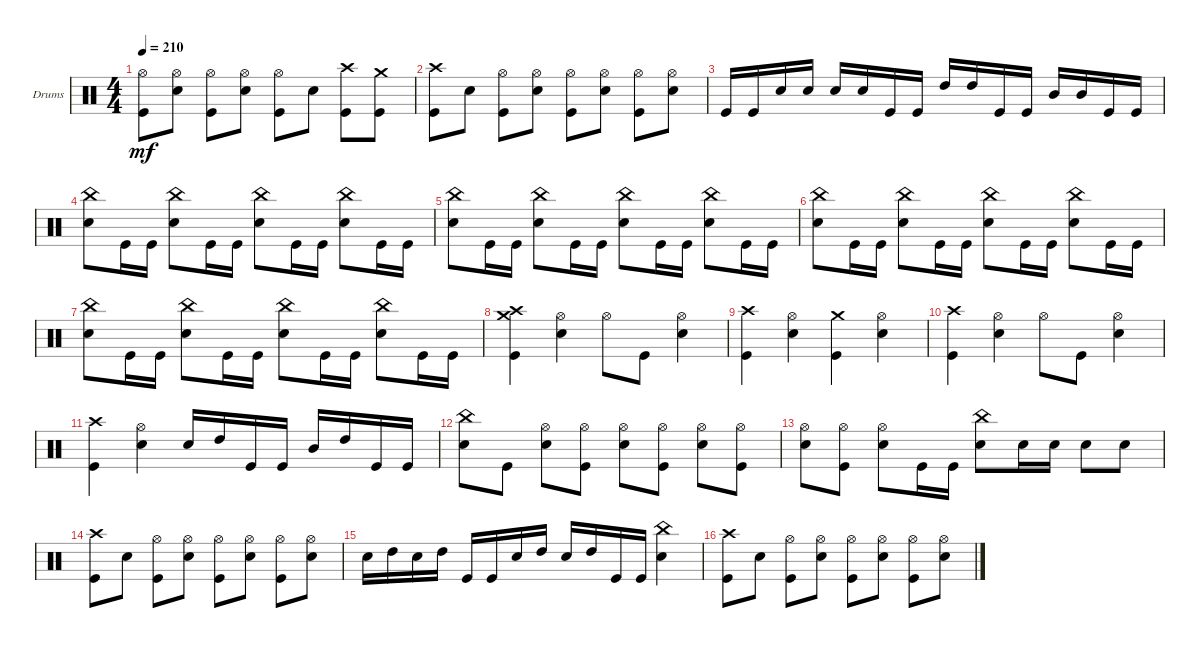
\bracketExtendMode groupsimilarinstruments
\firstSystemTrackNameOrientation horizontal
\otherSystemsTrackNameOrientation horizontal
\track ("Drumkit" "Drums") {instrument percussion}
\staff {score}
\articulation defaults
\ts (4 4)
\tempo 210
\clef neutral
\ks c
("Kick (hit)" "Hi-Hat (open)").8{dy mf} ("Snare (hit) 2" "Hi-Hat (open)").8 ("Hi-Hat (open)" "Kick (hit)").8 ("Snare (hit) 2" "Hi-Hat (open)").8 ("Kick (hit)" "Hi-Hat (open)").8 "Snare (hit) 2".8 ("Kick (hit)" "Crash high (hit)").8 ("Kick (hit)" "Crash medium (hit)").8 |
("Kick (hit)" "Crash high (hit)").8 "Snare (hit) 2".8 ("Hi-Hat (open)" "Kick (hit)").8 ("Hi-Hat (open)" "Snare (hit) 2").8 ("Hi-Hat (open)" "Kick (hit)").8 ("Hi-Hat (open)" "Snare (hit) 2").8 ("Hi-Hat (open)" "Kick (hit)").8 ("Hi-Hat (open)" "Snare (hit) 2").8 |
"Kick (hit)".16 "Kick (hit)".16 "Snare (hit) 2".16 "Snare (hit) 2".16 "Snare (hit) 2".16 "Snare (hit) 2".16 "Kick (hit)".16 "Kick (hit)".16 "High Tom (hit)".16 "High Tom (hit)".16 "Kick (hit)".16 "Kick (hit)".16 "Mid Tom (hit)".16 "Mid Tom (hit)".16 "Kick (hit)".16 "Kick (hit)".16 |
("Snare (hit) 2" "China (hit)").8 "Kick (hit)".16 "Kick (hit)".16 ("Snare (hit) 2" "China (hit)").8 "Kick (hit)".16 "Kick (hit)".16 ("Snare (hit) 2" "China (hit)").8 "Kick (hit)".16 "Kick (hit)".16 ("Snare (hit) 2" "China (hit)").8 "Kick (hit)".16 "Kick (hit)".16 |
("Snare (hit) 2" "China (hit)").8 "Kick (hit)".16 "Kick (hit)".16 ("Snare (hit) 2" "China (hit)").8 "Kick (hit)".16 "Kick (hit)".16 ("Snare (hit) 2" "China (hit)").8 "Kick (hit)".16 "Kick (hit)".16 ("Snare (hit) 2" "China (hit)").8 "Kick (hit)".16 "Kick (hit)".16 |
("Snare (hit) 2" "China (hit)").8 "Kick (hit)".16 "Kick (hit)".16 ("Snare (hit) 2" "China (hit)").8 "Kick (hit)".16 "Kick (hit)".16 ("Snare (hit) 2" "China (hit)").8 "Kick (hit)".16 "Kick (hit)".16 ("Snare (hit) 2" "China (hit)").8 "Kick (hit)".16 "Kick (hit)".16 |
("Snare (hit) 2" "China (hit)").8 "Kick (hit)".16 "Kick (hit)".16 ("Snare (hit) 2" "China (hit)").8 "Kick (hit)".16 "Kick (hit)".16 ("Snare (hit) 2" "China (hit)").8 "Kick (hit)".16 "Kick (hit)".16 ("Snare (hit) 2" "China (hit)").8 "Kick (hit)".16 "Kick (hit)".16 |
("Kick (hit)" "Crash medium (hit)" "Crash high (hit)").4 ("Snare (hit) 2" "Hi-Hat (open)").4 "Hi-Hat (open)".8 "Kick (hit)".8 ("Hi-Hat (open)" "Snare (hit) 2").4 |
("Kick (hit)" "Crash high (hit)").4 ("Hi-Hat (open)" "Snare (hit) 2").4 ("Kick (hit)" "Crash medium (hit)").4 ("Hi-Hat (open)" "Snare (hit) 2").4 |
("Crash high (hit)" "Kick (hit)").4 ("Hi-Hat (open)" "Snare (hit) 2").4 "Hi-Hat (open)".8 "Kick (hit)".8 ("Hi-Hat (open)" "Snare (hit) 2").4 |
("Crash high (hit)" "Kick (hit)").4 ("Hi-Hat (open)" "Snare (hit) 2").4 "Snare (hit) 2".16 "High Tom (hit)".16 "Kick (hit)".16 "Kick (hit)".16 "Mid Tom (hit)".16 "High Tom (hit)".16 "Kick (hit)".16 "Kick (hit)".16 |
("Snare (hit) 2" "China (hit)").8 "Kick (hit)".8 ("Snare (hit) 2" "Hi-Hat (open)").8 ("Kick (hit)" "Hi-Hat (open)").8 ("Hi-Hat (open)" "Snare (hit) 2").8 ("Hi-Hat (open)" "Kick (hit)").8 ("Hi-Hat (open)" "Snare (hit) 2").8 ("Hi-Hat (open)" "Kick (hit)").8 |
("Snare (hit) 2" "Hi-Hat (open)").8 ("Kick (hit)" "Hi-Hat (open)").8 ("Hi-Hat (open)" "Snare (hit) 2").8 "Kick (hit)".16 "Kick (hit)".16 ("Snare (hit) 2" "China (hit)").8 "Snare (hit) 2".16 "Snare (hit) 2".16 "Snare (hit) 2".8 "Snare (hit) 2".8 |
("Crash high (hit)" "Kick (hit)").8 "Snare (hit) 2".8 ("Hi-Hat (open)" "Kick (hit)").8 ("Hi-Hat (open)" "Snare (hit) 2").8 ("Hi-Hat (open)" "Kick (hit)").8 ("Hi-Hat (open)" "Snare (hit) 2").8 ("Hi-Hat (open)" "Kick (hit)").8 ("Hi-Hat (open)" "Snare (hit) 2").8 |
"Snare (hit) 2".16 "High Tom (hit)".16 "Snare (hit) 2".16 "High Tom (hit)".16 "Kick (hit)".16 "Kick (hit)".16 "Snare (hit) 2".16 "High Tom (hit)".16 "Snare (hit) 2".16 "High Tom (hit)".16 "Kick (hit)".16 "Kick (hit)".16 ("Snare (hit) 2" "China (hit)").4 |
("Kick (hit)" "Crash high (hit)").8 "Snare (hit) 2".8 ("Hi-Hat (open)" "Kick (hit)").8 ("Hi-Hat (open)" "Snare (hit) 2").8 ("Hi-Hat (open)" "Kick (hit)").8 ("Hi-Hat (open)" "Snare (hit) 2").8 ("Hi-Hat (open)" "Kick (hit)").8 ("Hi-Hat (open)" "Snare (hit) 2").8
